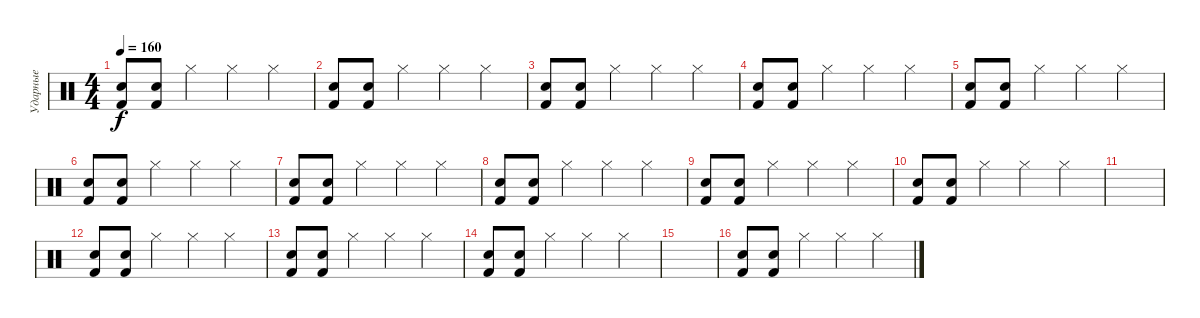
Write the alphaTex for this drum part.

\track ("Ударные" "Ударные") {instrument percussion}
\staff {score}
\articulation defaults
\ts (4 4)
\tempo 160
\clef neutral
\ks c
("Electric Snare (hit)" "Kick (hit) 2").8{dy f} ("Electric Snare (hit)" "Kick (hit) 2").8 "Hi-Hat (closed)".4 "Hi-Hat (closed)".4 "Hi-Hat (closed)".4 |
("Electric Snare (hit)" "Kick (hit) 2").8 ("Electric Snare (hit)" "Kick (hit) 2").8 "Hi-Hat (closed)".4 "Hi-Hat (closed)".4 "Hi-Hat (closed)".4 |
("Electric Snare (hit)" "Kick (hit) 2").8 ("Electric Snare (hit)" "Kick (hit) 2").8 "Hi-Hat (closed)".4 "Hi-Hat (closed)".4 "Hi-Hat (closed)".4 |
("Electric Snare (hit)" "Kick (hit) 2").8 ("Electric Snare (hit)" "Kick (hit) 2").8 "Hi-Hat (closed)".4 "Hi-Hat (closed)".4 "Hi-Hat (closed)".4 |
("Electric Snare (hit)" "Kick (hit) 2").8 ("Electric Snare (hit)" "Kick (hit) 2").8 "Hi-Hat (closed)".4 "Hi-Hat (closed)".4 "Hi-Hat (closed)".4 |
("Electric Snare (hit)" "Kick (hit) 2").8 ("Electric Snare (hit)" "Kick (hit) 2").8 "Hi-Hat (closed)".4 "Hi-Hat (closed)".4 "Hi-Hat (closed)".4 |
("Electric Snare (hit)" "Kick (hit) 2").8 ("Electric Snare (hit)" "Kick (hit) 2").8 "Hi-Hat (closed)".4 "Hi-Hat (closed)".4 "Hi-Hat (closed)".4 |
("Electric Snare (hit)" "Kick (hit) 2").8 ("Electric Snare (hit)" "Kick (hit) 2").8 "Hi-Hat (closed)".4 "Hi-Hat (closed)".4 "Hi-Hat (closed)".4 |
("Electric Snare (hit)" "Kick (hit) 2").8 ("Electric Snare (hit)" "Kick (hit) 2").8 "Hi-Hat (closed)".4 "Hi-Hat (closed)".4 "Hi-Hat (closed)".4 |
("Electric Snare (hit)" "Kick (hit) 2").8 ("Electric Snare (hit)" "Kick (hit) 2").8 "Hi-Hat (closed)".4 "Hi-Hat (closed)".4 "Hi-Hat (closed)".4 |
|
("Electric Snare (hit)" "Kick (hit) 2").8 ("Electric Snare (hit)" "Kick (hit) 2").8 "Hi-Hat (closed)".4 "Hi-Hat (closed)".4 "Hi-Hat (closed)".4 |
("Electric Snare (hit)" "Kick (hit) 2").8 ("Electric Snare (hit)" "Kick (hit) 2").8 "Hi-Hat (closed)".4 "Hi-Hat (closed)".4 "Hi-Hat (closed)".4 |
("Electric Snare (hit)" "Kick (hit) 2").8 ("Electric Snare (hit)" "Kick (hit) 2").8 "Hi-Hat (closed)".4 "Hi-Hat (closed)".4 "Hi-Hat (closed)".4 |
|
("Electric Snare (hit)" "Kick (hit) 2").8 ("Electric Snare (hit)" "Kick (hit) 2").8 "Hi-Hat (closed)".4 "Hi-Hat (closed)".4 "Hi-Hat (closed)".4
